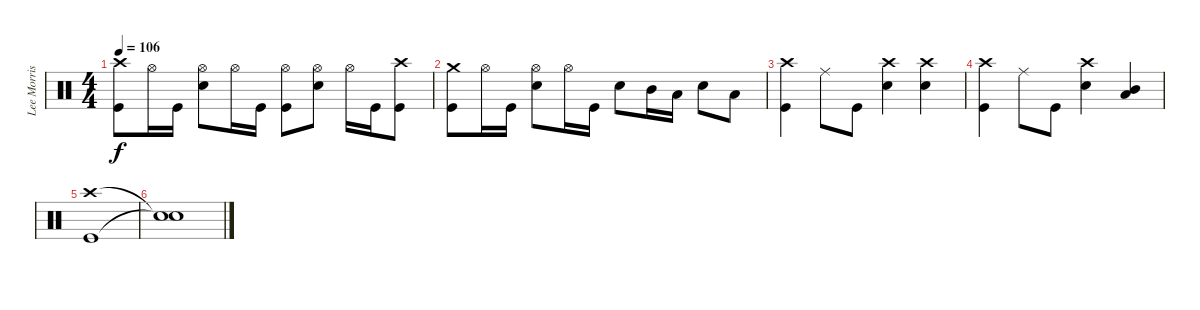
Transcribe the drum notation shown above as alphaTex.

\track ("Lee Morris" "Lee Morris") {instrument percussion}
\staff {score}
\articulation defaults
\ts (4 4)
\tempo 106
\clef neutral
\ks c
("Kick (hit)" "Crash high (hit)").8{dy f} "Hi-Hat (open)".16 "Kick (hit)".16 ("Snare (hit) 2" "Hi-Hat (open)").8 "Hi-Hat (open)".16 "Kick (hit)".16 ("Kick (hit)" "Hi-Hat (open)").8 ("Snare (hit) 2" "Hi-Hat (open)").8 "Hi-Hat (open)".16 "Kick (hit)".16 ("Kick (hit)" "Crash high (hit)").8 |
("Kick (hit)" "Crash medium (hit)").8 "Hi-Hat (open)".16 "Kick (hit)".16 ("Snare (hit) 2" "Hi-Hat (open)").8 "Hi-Hat (open)".16 "Kick (hit)".16 "Snare (hit) 2".8 "Mid Tom (hit)".16 "Low Tom (hit)".16 "Snare (hit) 2".8 "Low Tom (hit)".8 |
("Kick (hit)" "Crash high (hit)").4 "Ride (middle)".8 "Kick (hit)".8 ("Snare (hit) 2" "Crash high (hit)").4 ("Snare (hit) 2" "Crash high (hit)").4 |
("Kick (hit)" "Crash high (hit)").4 "Ride (middle)".8 "Kick (hit)".8 ("Snare (hit) 2" "Crash high (hit)").4 ("Mid Tom (hit)" "Low Tom (hit)").4 |
("Kick (hit)" "Crash high (hit)").1 |
("Snare (hit)"{t} "Snare (hit)"{t}).1
